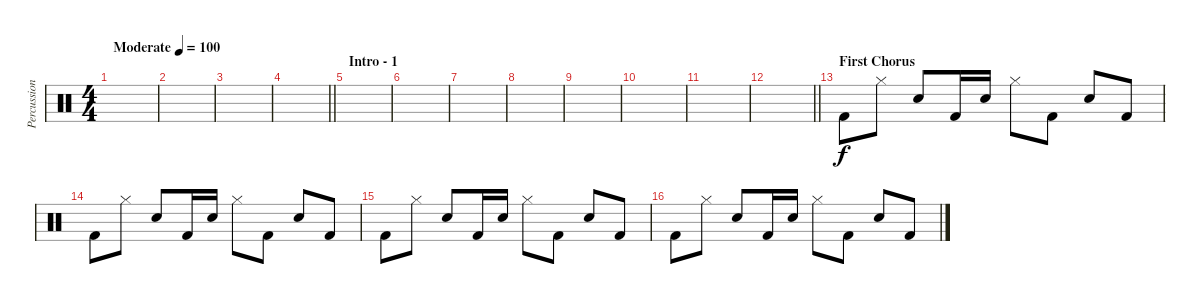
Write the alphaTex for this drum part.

\track ("Percussion" "Percussion") {instrument percussion}
\staff {score}
\articulation defaults
\ts (4 4)
\tempo (100 "Moderate")
\clef neutral
\ks c
|
|
|
\barLineRight lightlight
|
\section ("" "Intro - 1")
|
|
|
|
|
|
|
\barLineRight lightlight
|
\section ("" "First Chorus")
"Kick (hit) 2".8 "Hi-Hat (closed)".8 "Electric Snare (hit)".8 "Kick (hit) 2".16 "Electric Snare (hit)".16 "Hi-Hat (closed)".8 "Kick (hit) 2".8 "Electric Snare (hit)".8 "Kick (hit) 2".8 |
"Kick (hit) 2".8 "Hi-Hat (closed)".8 "Electric Snare (hit)".8 "Kick (hit) 2".16 "Electric Snare (hit)".16 "Hi-Hat (closed)".8 "Kick (hit) 2".8 "Electric Snare (hit)".8 "Kick (hit) 2".8 |
"Kick (hit) 2".8 "Hi-Hat (closed)".8 "Electric Snare (hit)".8 "Kick (hit) 2".16 "Electric Snare (hit)".16 "Hi-Hat (closed)".8 "Kick (hit) 2".8 "Electric Snare (hit)".8 "Kick (hit) 2".8 |
"Kick (hit) 2".8 "Hi-Hat (closed)".8 "Electric Snare (hit)".8 "Kick (hit) 2".16 "Electric Snare (hit)".16 "Hi-Hat (closed)".8 "Kick (hit) 2".8 "Electric Snare (hit)".8 "Kick (hit) 2".8
